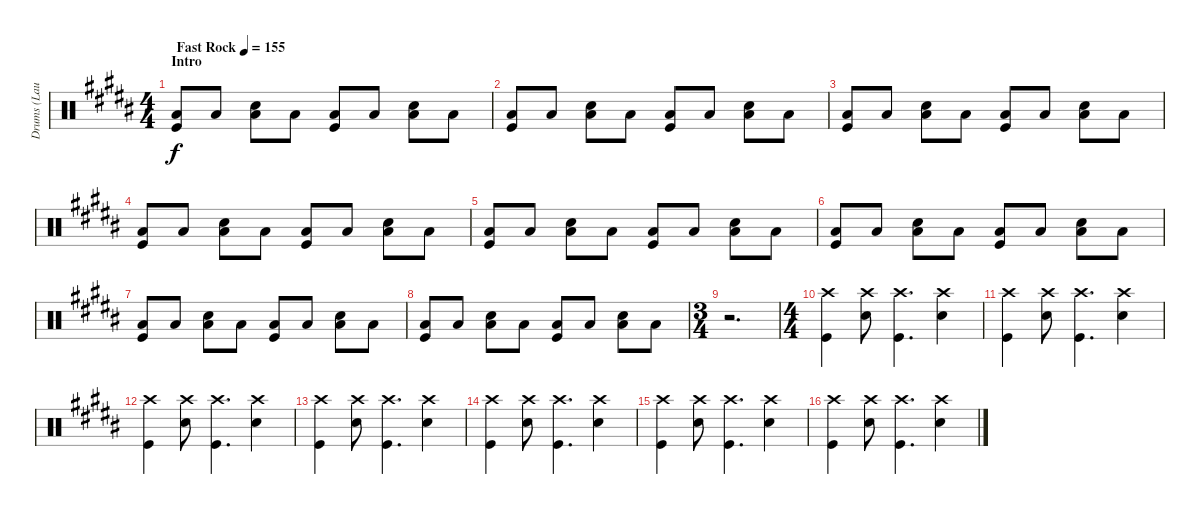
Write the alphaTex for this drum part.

\track ("Drums (Laust Sonne)" "Drums (Lau") {instrument percussion}
\staff {score}
\articulation defaults
\ts (4 4)
\section ("" "Intro")
\tempo (155 "Fast Rock")
\clef neutral
\ks b
("Kick (hit)" "Low Floor Tom (hit)").8{dy f} "Low Floor Tom (hit)".8 ("Snare (hit) 2" "Low Floor Tom (hit)").8 "Low Floor Tom (hit)".8 ("Kick (hit)" "Low Floor Tom (hit)").8 "Low Floor Tom (hit)".8 ("Snare (hit) 2" "Low Floor Tom (hit)").8 "Low Floor Tom (hit)".8 |
("Kick (hit)" "Low Floor Tom (hit)").8 "Low Floor Tom (hit)".8 ("Snare (hit) 2" "Low Floor Tom (hit)").8 "Low Floor Tom (hit)".8 ("Kick (hit)" "Low Floor Tom (hit)").8 "Low Floor Tom (hit)".8 ("Snare (hit) 2" "Low Floor Tom (hit)").8 "Low Floor Tom (hit)".8 |
("Kick (hit)" "Low Floor Tom (hit)").8 "Low Floor Tom (hit)".8 ("Snare (hit) 2" "Low Floor Tom (hit)").8 "Low Floor Tom (hit)".8 ("Kick (hit)" "Low Floor Tom (hit)").8 "Low Floor Tom (hit)".8 ("Snare (hit) 2" "Low Floor Tom (hit)").8 "Low Floor Tom (hit)".8 |
("Kick (hit)" "Low Floor Tom (hit)").8 "Low Floor Tom (hit)".8 ("Snare (hit) 2" "Low Floor Tom (hit)").8 "Low Floor Tom (hit)".8 ("Kick (hit)" "Low Floor Tom (hit)").8 "Low Floor Tom (hit)".8 ("Snare (hit) 2" "Low Floor Tom (hit)").8 "Low Floor Tom (hit)".8 |
("Kick (hit)" "Low Floor Tom (hit)").8 "Low Floor Tom (hit)".8 ("Snare (hit) 2" "Low Floor Tom (hit)").8 "Low Floor Tom (hit)".8 ("Kick (hit)" "Low Floor Tom (hit)").8 "Low Floor Tom (hit)".8 ("Snare (hit) 2" "Low Floor Tom (hit)").8 "Low Floor Tom (hit)".8 |
("Kick (hit)" "Low Floor Tom (hit)").8 "Low Floor Tom (hit)".8 ("Snare (hit) 2" "Low Floor Tom (hit)").8 "Low Floor Tom (hit)".8 ("Kick (hit)" "Low Floor Tom (hit)").8 "Low Floor Tom (hit)".8 ("Snare (hit) 2" "Low Floor Tom (hit)").8 "Low Floor Tom (hit)".8 |
("Kick (hit)" "Low Floor Tom (hit)").8 "Low Floor Tom (hit)".8 ("Snare (hit) 2" "Low Floor Tom (hit)").8 "Low Floor Tom (hit)".8 ("Kick (hit)" "Low Floor Tom (hit)").8 "Low Floor Tom (hit)".8 ("Snare (hit) 2" "Low Floor Tom (hit)").8 "Low Floor Tom (hit)".8 |
("Kick (hit)" "Low Floor Tom (hit)").8 "Low Floor Tom (hit)".8 ("Snare (hit) 2" "Low Floor Tom (hit)").8 "Low Floor Tom (hit)".8 ("Kick (hit)" "Low Floor Tom (hit)").8 "Low Floor Tom (hit)".8 ("Snare (hit) 2" "Low Floor Tom (hit)").8 "Low Floor Tom (hit)".8 |
\ts (3 4)
r.2{d} |
\ts (4 4)
("Crash high (hit)" "Kick (hit)").4 ("Crash high (hit)" "Snare (hit) 2").8 ("Crash high (hit)" "Kick (hit)").4{d} ("Crash high (hit)" "Snare (hit) 2").4 |
("Crash high (hit)" "Kick (hit)").4 ("Crash high (hit)" "Snare (hit) 2").8 ("Crash high (hit)" "Kick (hit)").4{d} ("Crash high (hit)" "Snare (hit) 2").4 |
("Crash high (hit)" "Kick (hit)").4 ("Crash high (hit)" "Snare (hit) 2").8 ("Crash high (hit)" "Kick (hit)").4{d} ("Crash high (hit)" "Snare (hit) 2").4 |
("Crash high (hit)" "Kick (hit)").4 ("Crash high (hit)" "Snare (hit) 2").8 ("Crash high (hit)" "Kick (hit)").4{d} ("Crash high (hit)" "Snare (hit) 2").4 |
("Crash high (hit)" "Kick (hit)").4 ("Crash high (hit)" "Snare (hit) 2").8 ("Crash high (hit)" "Kick (hit)").4{d} ("Crash high (hit)" "Snare (hit) 2").4 |
("Crash high (hit)" "Kick (hit)").4 ("Crash high (hit)" "Snare (hit) 2").8 ("Crash high (hit)" "Kick (hit)").4{d} ("Crash high (hit)" "Snare (hit) 2").4 |
("Crash high (hit)" "Kick (hit)").4 ("Crash high (hit)" "Snare (hit) 2").8 ("Crash high (hit)" "Kick (hit)").4{d} ("Crash high (hit)" "Snare (hit) 2").4
